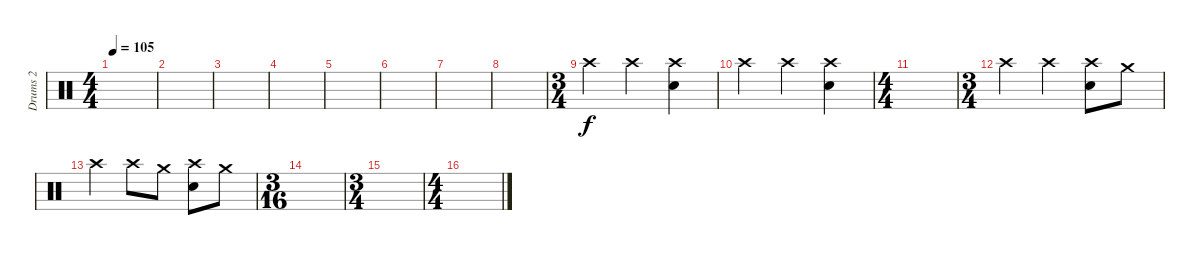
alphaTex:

\track ("Drums 2" "Drums 2") {instrument percussion}
\staff
\articulation defaults
\ts (4 4)
\tempo 105
\clef neutral
\ks c
|
|
|
|
|
|
|
|
\ts (3 4)
"Crash high (hit)".4 "Crash high (hit)".4 ("Crash high (hit)" "Electric Snare (hit)").4 |
"Crash high (hit)".4 "Crash high (hit)".4 ("Crash high (hit)" "Electric Snare (hit)").4 |
\ts (4 4)
|
\ts (3 4)
"Crash high (hit)".4 "Crash high (hit)".4 ("Crash high (hit)" "Electric Snare (hit)").8 "Crash medium (hit)".8 |
"Crash high (hit)".4 "Crash high (hit)".8 "Crash medium (hit)".8 ("Crash high (hit)" "Electric Snare (hit)").8 "Crash medium (hit)".8 |
\ts (3 16)
|
\ts (3 4)
|
\ts (4 4)
